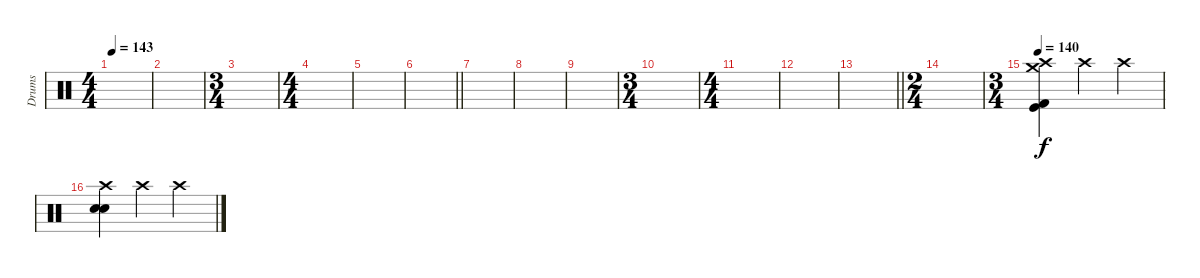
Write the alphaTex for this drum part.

\track ("Drums" "Drums") {instrument percussion}
\staff {score}
\articulation defaults
\ts (4 4)
\tempo 143
\clef neutral
\ks c
|
|
\ts (3 4)
|
\ts (4 4)
|
|
\barLineRight lightlight
|
|
|
|
\ts (3 4)
|
\ts (4 4)
|
|
\barLineRight lightlight
|
\ts (2 4)
|
\ts (3 4)
\tempo 140
("Crash medium (hit)" "Crash high (hit)" "Kick (hit) 2" "Kick (hit)").4 "Crash high (hit)".4 "Crash high (hit)".4 |
("Crash high (hit)" "Electric Snare (hit)" "Electric Snare (hit)").4 "Crash high (hit)".4 "Crash high (hit)".4
